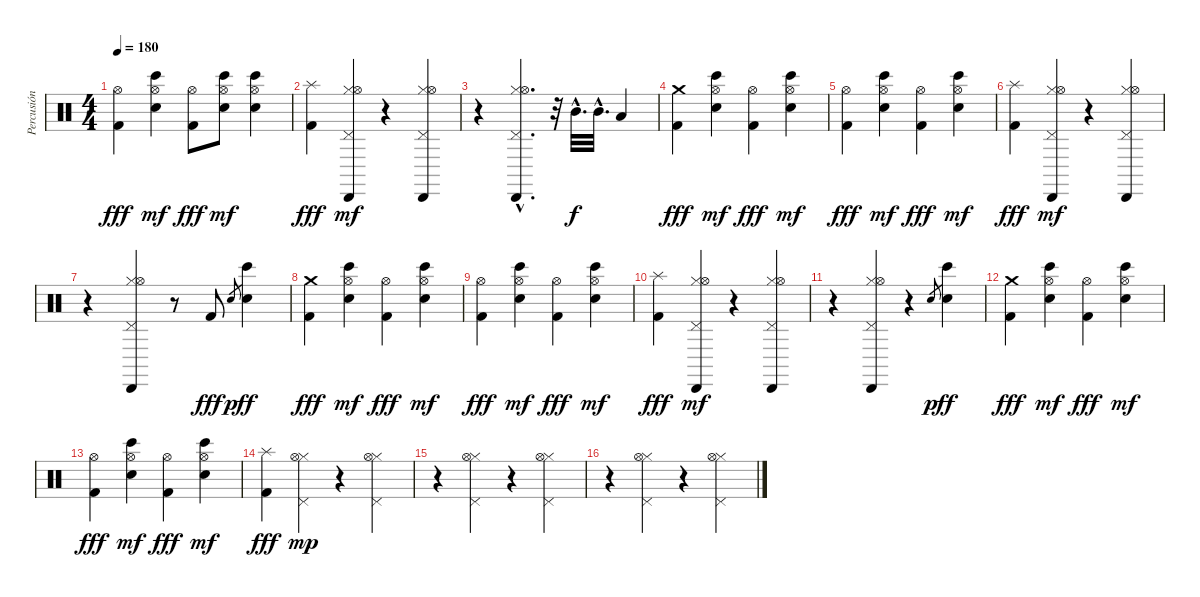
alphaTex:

\track ("Percusión" "Percusión") {instrument percussion}
\staff {score}
\articulation defaults
\ts (4 4)
\tempo 180
\clef neutral
\ks c
("Hi-Hat (open)" "Kick (hit) 2").4{dy fff} ("Hi-Hat (open)" "Bongo High (hit)" "Snare (hit) 2").4{dy mf} ("Hi-Hat (open)" "Kick (hit) 2").8{dy fff} ("Hi-Hat (open)" "Bongo High (hit)" "Snare (hit) 2").8{dy mf} ("Hi-Hat (open)" "Bongo High (hit)" "Snare (hit) 2").4 |
("Splash (hit)" "Kick (hit) 2").4{dy fff} ("Hi-Hat (closed)" "Pedal Hi-Hat (hit)" "Hi-Hat (open)" "Cabasa (hit)").4{dy mf} r.4 ("Hi-Hat (closed)" "Pedal Hi-Hat (hit)" "Hi-Hat (open)" "Cabasa (hit)").4 |
r.4 ("Hi-Hat (closed)"{hac} "Pedal Hi-Hat (hit)"{hac} "Hi-Hat (open)"{hac} "Cabasa (hit)"{hac}).4{d} r.32 "Mid Tom (hit)"{hac}.32{d dy f} "Mid Tom (hit)"{hac}.32{d} "Low Tom (hit)".4 |
("Crash medium (hit)" "Kick (hit) 2").4{dy fff} ("Hi-Hat (open)" "Bongo High (hit)" "Snare (hit) 2").4{dy mf} ("Hi-Hat (open)" "Kick (hit) 2").4{dy fff} ("Hi-Hat (open)" "Bongo High (hit)" "Snare (hit) 2").4{dy mf} |
("Hi-Hat (open)" "Kick (hit) 2").4{dy fff} ("Hi-Hat (open)" "Bongo High (hit)" "Snare (hit) 2").4{dy mf} ("Hi-Hat (open)" "Kick (hit) 2").4{dy fff} ("Hi-Hat (open)" "Bongo High (hit)" "Snare (hit) 2").4{dy mf} |
("Splash (hit)" "Kick (hit) 2").4{dy fff} ("Hi-Hat (closed)" "Pedal Hi-Hat (hit)" "Hi-Hat (open)" "Cabasa (hit)").4{dy mf} r.4 ("Hi-Hat (closed)" "Pedal Hi-Hat (hit)" "Hi-Hat (open)" "Cabasa (hit)").4 |
r.4 ("Hi-Hat (closed)" "Pedal Hi-Hat (hit)" "Hi-Hat (open)" "Cabasa (hit)").4 r.8 "Kick (hit) 2".8{dy fff} "Snare (hit) 2".8{gr dy p} ("Bongo High (hit)" "Snare (hit) 2").4{dy ff} |
("Crash medium (hit)" "Kick (hit) 2").4{dy fff} ("Hi-Hat (open)" "Bongo High (hit)" "Snare (hit) 2").4{dy mf} ("Hi-Hat (open)" "Kick (hit) 2").4{dy fff} ("Hi-Hat (open)" "Bongo High (hit)" "Snare (hit) 2").4{dy mf} |
("Hi-Hat (open)" "Kick (hit) 2").4{dy fff} ("Hi-Hat (open)" "Bongo High (hit)" "Snare (hit) 2").4{dy mf} ("Hi-Hat (open)" "Kick (hit) 2").4{dy fff} ("Hi-Hat (open)" "Bongo High (hit)" "Snare (hit) 2").4{dy mf} |
("Splash (hit)" "Kick (hit) 2").4{dy fff} ("Hi-Hat (closed)" "Pedal Hi-Hat (hit)" "Hi-Hat (open)" "Cabasa (hit)").4{dy mf} r.4 ("Hi-Hat (closed)" "Pedal Hi-Hat (hit)" "Hi-Hat (open)" "Cabasa (hit)").4 |
r.4 ("Hi-Hat (closed)" "Pedal Hi-Hat (hit)" "Hi-Hat (open)" "Cabasa (hit)").4 r.4 "Snare (hit) 2".8{gr dy p} ("Bongo High (hit)" "Snare (hit) 2").4{dy ff} |
("Crash medium (hit)" "Kick (hit) 2").4{dy fff} ("Hi-Hat (open)" "Bongo High (hit)" "Snare (hit) 2").4{dy mf} ("Hi-Hat (open)" "Kick (hit) 2").4{dy fff} ("Hi-Hat (open)" "Bongo High (hit)" "Snare (hit) 2").4{dy mf} |
("Hi-Hat (open)" "Kick (hit) 2").4{dy fff} ("Hi-Hat (open)" "Bongo High (hit)" "Snare (hit) 2").4{dy mf} ("Hi-Hat (open)" "Kick (hit) 2").4{dy fff} ("Hi-Hat (open)" "Bongo High (hit)" "Snare (hit) 2").4{dy mf} |
("Splash (hit)" "Kick (hit) 2").4{dy fff} ("Hi-Hat (closed)" "Pedal Hi-Hat (hit)" "Hi-Hat (open)").4{dy mp} r.4 ("Hi-Hat (closed)" "Pedal Hi-Hat (hit)" "Hi-Hat (open)").4 |
r.4 ("Hi-Hat (closed)" "Pedal Hi-Hat (hit)" "Hi-Hat (open)").4 r.4 ("Hi-Hat (closed)" "Pedal Hi-Hat (hit)" "Hi-Hat (open)").4 |
r.4 ("Hi-Hat (closed)" "Pedal Hi-Hat (hit)" "Hi-Hat (open)").4 r.4 ("Hi-Hat (closed)" "Pedal Hi-Hat (hit)" "Hi-Hat (open)").4
